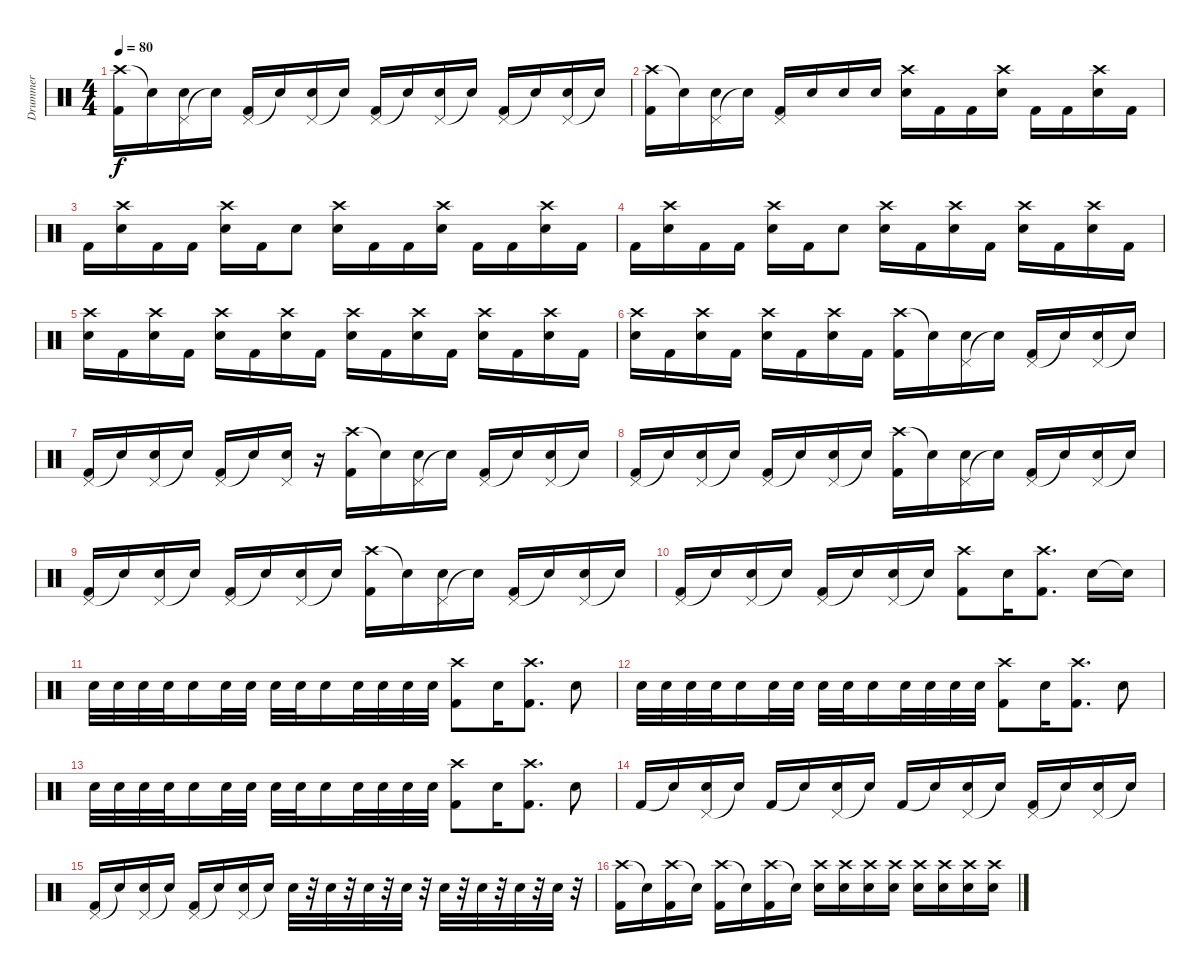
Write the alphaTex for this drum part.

\track ("Drummer" "Drummer") {instrument percussion}
\staff {score}
\articulation defaults
\ts (4 4)
\tempo 80
\clef neutral
\ks c
("Crash high (hit)" "Kick (hit) 2").16{dy f} "Snare (hit)"{t}.16 ("Pedal Hi-Hat (hit)" "Electric Snare (hit)").16 "Snare (hit)"{t}.16 ("Pedal Hi-Hat (hit)" "Kick (hit) 2").16 "Snare (hit)"{t}.16 ("Pedal Hi-Hat (hit)" "Electric Snare (hit)").16 "Snare (hit)"{t}.16 ("Pedal Hi-Hat (hit)" "Kick (hit) 2").16 "Snare (hit)"{t}.16 ("Pedal Hi-Hat (hit)" "Electric Snare (hit)").16 "Snare (hit)"{t}.16 ("Pedal Hi-Hat (hit)" "Kick (hit) 2").16 "Snare (hit)"{t}.16 ("Pedal Hi-Hat (hit)" "Electric Snare (hit)").16 "Snare (hit)"{t}.16 |
("Crash high (hit)" "Kick (hit) 2").16 "Snare (hit)"{t}.16 ("Pedal Hi-Hat (hit)" "Electric Snare (hit)").16 "Snare (hit)"{t}.16 ("Pedal Hi-Hat (hit)" "Kick (hit) 2").16 "Electric Snare (hit)".16 "Electric Snare (hit)".16 "Electric Snare (hit)".16 ("Crash high (hit)" "Electric Snare (hit)").16 "Kick (hit) 2".16 "Kick (hit) 2".16 ("Crash high (hit)" "Electric Snare (hit)").16 "Kick (hit) 2".16 "Kick (hit) 2".16 ("Crash high (hit)" "Electric Snare (hit)").16 "Kick (hit) 2".16 |
"Kick (hit) 2".16 ("Crash high (hit)" "Electric Snare (hit)").16 "Kick (hit) 2".16 "Kick (hit) 2".16 ("Crash high (hit)" "Electric Snare (hit)").16 "Kick (hit) 2".16 "Electric Snare (hit)".8 ("Crash high (hit)" "Electric Snare (hit)").16 "Kick (hit) 2".16 "Kick (hit) 2".16 ("Crash high (hit)" "Electric Snare (hit)").16 "Kick (hit) 2".16 "Kick (hit) 2".16 ("Crash high (hit)" "Electric Snare (hit)").16 "Kick (hit) 2".16 |
"Kick (hit) 2".16 ("Crash high (hit)" "Electric Snare (hit)").16 "Kick (hit) 2".16 "Kick (hit) 2".16 ("Crash high (hit)" "Electric Snare (hit)").16 "Kick (hit) 2".16 "Electric Snare (hit)".8 ("Crash high (hit)" "Electric Snare (hit)").16 "Kick (hit) 2".16 ("Crash high (hit)" "Electric Snare (hit)").16 "Kick (hit) 2".16 ("Crash high (hit)" "Electric Snare (hit)").16 "Kick (hit) 2".16 ("Crash high (hit)" "Electric Snare (hit)").16 "Kick (hit) 2".16 |
("Crash high (hit)" "Electric Snare (hit)").16 "Kick (hit) 2".16 ("Crash high (hit)" "Electric Snare (hit)").16 "Kick (hit) 2".16 ("Crash high (hit)" "Electric Snare (hit)").16 "Kick (hit) 2".16 ("Crash high (hit)" "Electric Snare (hit)").16 "Kick (hit) 2".16 ("Crash high (hit)" "Electric Snare (hit)").16 "Kick (hit) 2".16 ("Crash high (hit)" "Electric Snare (hit)").16 "Kick (hit) 2".16 ("Crash high (hit)" "Electric Snare (hit)").16 "Kick (hit) 2".16 ("Crash high (hit)" "Electric Snare (hit)").16 "Kick (hit) 2".16 |
("Crash high (hit)" "Electric Snare (hit)").16 "Kick (hit) 2".16 ("Crash high (hit)" "Electric Snare (hit)").16 "Kick (hit) 2".16 ("Crash high (hit)" "Electric Snare (hit)").16 "Kick (hit) 2".16 ("Crash high (hit)" "Electric Snare (hit)").16 "Kick (hit) 2".16 ("Crash high (hit)" "Kick (hit) 2").16 "Snare (hit)"{t}.16 ("Pedal Hi-Hat (hit)" "Electric Snare (hit)").16 "Snare (hit)"{t}.16 ("Pedal Hi-Hat (hit)" "Kick (hit) 2").16 "Snare (hit)"{t}.16 ("Pedal Hi-Hat (hit)" "Electric Snare (hit)").16 "Snare (hit)"{t}.16 |
("Pedal Hi-Hat (hit)" "Kick (hit) 2").16 "Snare (hit)"{t}.16 ("Pedal Hi-Hat (hit)" "Electric Snare (hit)").16 "Snare (hit)"{t}.16 ("Pedal Hi-Hat (hit)" "Kick (hit) 2").16 "Snare (hit)"{t}.16 ("Pedal Hi-Hat (hit)" "Electric Snare (hit)").16 r.16 ("Crash high (hit)" "Kick (hit) 2").16 "Snare (hit)"{t}.16 ("Pedal Hi-Hat (hit)" "Electric Snare (hit)").16 "Snare (hit)"{t}.16 ("Pedal Hi-Hat (hit)" "Kick (hit) 2").16 "Snare (hit)"{t}.16 ("Pedal Hi-Hat (hit)" "Electric Snare (hit)").16 "Snare (hit)"{t}.16 |
("Pedal Hi-Hat (hit)" "Kick (hit) 2").16 "Snare (hit)"{t}.16 ("Pedal Hi-Hat (hit)" "Electric Snare (hit)").16 "Snare (hit)"{t}.16 ("Pedal Hi-Hat (hit)" "Kick (hit) 2").16 "Snare (hit)"{t}.16 ("Pedal Hi-Hat (hit)" "Electric Snare (hit)").16 "Snare (hit)"{t}.16 ("Crash high (hit)" "Kick (hit) 2").16 "Snare (hit)"{t}.16 ("Pedal Hi-Hat (hit)" "Electric Snare (hit)").16 "Snare (hit)"{t}.16 ("Pedal Hi-Hat (hit)" "Kick (hit) 2").16 "Snare (hit)"{t}.16 ("Pedal Hi-Hat (hit)" "Electric Snare (hit)").16 "Snare (hit)"{t}.16 |
("Pedal Hi-Hat (hit)" "Kick (hit) 2").16 "Snare (hit)"{t}.16 ("Pedal Hi-Hat (hit)" "Electric Snare (hit)").16 "Snare (hit)"{t}.16 ("Pedal Hi-Hat (hit)" "Kick (hit) 2").16 "Snare (hit)"{t}.16 ("Pedal Hi-Hat (hit)" "Electric Snare (hit)").16 "Snare (hit)"{t}.16 ("Crash high (hit)" "Kick (hit) 2").16 "Snare (hit)"{t}.16 ("Pedal Hi-Hat (hit)" "Electric Snare (hit)").16 "Snare (hit)"{t}.16 ("Pedal Hi-Hat (hit)" "Kick (hit) 2").16 "Snare (hit)"{t}.16 ("Pedal Hi-Hat (hit)" "Electric Snare (hit)").16 "Snare (hit)"{t}.16 |
("Pedal Hi-Hat (hit)" "Kick (hit) 2").16 "Snare (hit)"{t}.16 ("Pedal Hi-Hat (hit)" "Electric Snare (hit)").16 "Snare (hit)"{t}.16 ("Pedal Hi-Hat (hit)" "Kick (hit) 2").16 "Snare (hit)"{t}.16 ("Pedal Hi-Hat (hit)" "Electric Snare (hit)").16 "Snare (hit)"{t}.16 ("Crash high (hit)" "Kick (hit) 2").8 "Electric Snare (hit)".16 ("Crash high (hit)" "Kick (hit) 2").8{d} "Electric Snare (hit)".16 "Snare (hit)"{t}.16 |
"Electric Snare (hit)".32 "Electric Snare (hit)".32 "Electric Snare (hit)".32 "Electric Snare (hit)".32 "Electric Snare (hit)".16 "Electric Snare (hit)".32 "Electric Snare (hit)".32 "Electric Snare (hit)".32 "Electric Snare (hit)".32 "Electric Snare (hit)".16 "Electric Snare (hit)".32 "Electric Snare (hit)".32 "Electric Snare (hit)".32 "Electric Snare (hit)".32 ("Crash high (hit)" "Kick (hit) 2").8 "Electric Snare (hit)".16 ("Crash high (hit)" "Kick (hit) 2").8{d} "Electric Snare (hit)".8 |
"Electric Snare (hit)".32 "Electric Snare (hit)".32 "Electric Snare (hit)".32 "Electric Snare (hit)".32 "Electric Snare (hit)".16 "Electric Snare (hit)".32 "Electric Snare (hit)".32 "Electric Snare (hit)".32 "Electric Snare (hit)".32 "Electric Snare (hit)".16 "Electric Snare (hit)".32 "Electric Snare (hit)".32 "Electric Snare (hit)".32 "Electric Snare (hit)".32 ("Crash high (hit)" "Kick (hit) 2").8 "Electric Snare (hit)".16 ("Crash high (hit)" "Kick (hit) 2").8{d} "Electric Snare (hit)".8 |
"Electric Snare (hit)".32 "Electric Snare (hit)".32 "Electric Snare (hit)".32 "Electric Snare (hit)".32 "Electric Snare (hit)".16 "Electric Snare (hit)".32 "Electric Snare (hit)".32 "Electric Snare (hit)".32 "Electric Snare (hit)".32 "Electric Snare (hit)".16 "Electric Snare (hit)".32 "Electric Snare (hit)".32 "Electric Snare (hit)".32 "Electric Snare (hit)".32 ("Crash high (hit)" "Kick (hit) 2").8 "Electric Snare (hit)".16 ("Crash high (hit)" "Kick (hit) 2").8{d} "Electric Snare (hit)".8 |
"Kick (hit) 2".16 "Snare (hit)"{t}.16 ("Pedal Hi-Hat (hit)" "Electric Snare (hit)").16 "Snare (hit)"{t}.16 "Kick (hit) 2".16 "Snare (hit)"{t}.16 ("Pedal Hi-Hat (hit)" "Electric Snare (hit)").16 "Snare (hit)"{t}.16 "Kick (hit) 2".16 "Snare (hit)"{t}.16 ("Pedal Hi-Hat (hit)" "Electric Snare (hit)").16 "Snare (hit)"{t}.16 ("Pedal Hi-Hat (hit)" "Kick (hit) 2").16 "Snare (hit)"{t}.16 ("Pedal Hi-Hat (hit)" "Electric Snare (hit)").16 "Snare (hit)"{t}.16 |
("Pedal Hi-Hat (hit)" "Kick (hit) 2").16 "Snare (hit)"{t}.16 ("Pedal Hi-Hat (hit)" "Electric Snare (hit)").16 "Snare (hit)"{t}.16 ("Pedal Hi-Hat (hit)" "Kick (hit) 2").16 "Snare (hit)"{t}.16 ("Pedal Hi-Hat (hit)" "Electric Snare (hit)").16 "Snare (hit)"{t}.16 "Electric Snare (hit)".32 r.32 "Electric Snare (hit)".32 r.32 "Electric Snare (hit)".32 r.32 "Electric Snare (hit)".32 r.32 "Electric Snare (hit)".32 r.32 "Electric Snare (hit)".32 r.32 "Electric Snare (hit)".32 r.32 "Electric Snare (hit)".32 r.32 |
("Crash high (hit)" "Kick (hit) 2").16 "Snare (hit)"{t}.16 ("Crash high (hit)" "Kick (hit) 2").16 "Snare (hit)"{t}.16 ("Crash high (hit)" "Kick (hit) 2").16 "Snare (hit)"{t}.16 ("Crash high (hit)" "Kick (hit) 2").16 "Snare (hit)"{t}.16 ("Crash high (hit)" "Snare (hit)").16 ("Crash high (hit)" "Snare (hit)").16 ("Crash high (hit)" "Snare (hit)").16 ("Crash high (hit)" "Snare (hit)").16 ("Crash high (hit)" "Snare (hit)").16 ("Crash high (hit)" "Snare (hit)").16 ("Crash high (hit)" "Snare (hit)").16 ("Crash high (hit)" "Snare (hit)").16
